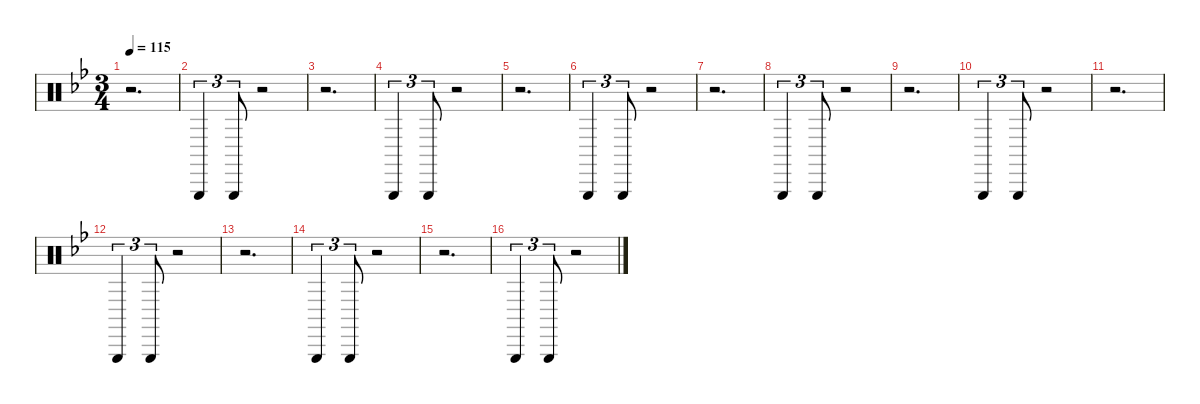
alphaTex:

\defaultSystemsLayout 4
\hideDynamics
\bracketExtendMode nobrackets
\singleTrackTrackNamePolicy hidden
\multiTrackTrackNamePolicy hidden
\firstSystemTrackNameMode fullname
\firstSystemTrackNameOrientation horizontal
\otherSystemsTrackNameOrientation horizontal
\track ("Percussion" "drm.") {defaultSystemsLayout 16 instrument percussion}
\staff {score}
\articulation defaults
\ts (3 4)
\tempo 115
\clef neutral
\ks gminor
r.2{d dy p beam Down} |
"Triangle (hit)"{acc forcenatural}.4{tu (3 2) dy mf beam Up} "Triangle (hit)"{acc forcenatural}.8{tu (3 2) dy p beam Up} r.2{beam Up} |
r.2{d beam Down} |
"Triangle (hit)"{acc forcenatural}.4{tu (3 2) dy mf beam Up} "Triangle (hit)"{acc forcenatural}.8{tu (3 2) dy p beam Up} r.2{beam Up} |
r.2{d beam Down} |
"Triangle (hit)"{acc forcenatural}.4{tu (3 2) dy mf beam Up} "Triangle (hit)"{acc forcenatural}.8{tu (3 2) dy p beam Up} r.2{beam Up} |
r.2{d beam Down} |
"Triangle (hit)"{acc forcenatural}.4{tu (3 2) dy mf beam Up} "Triangle (hit)"{acc forcenatural}.8{tu (3 2) dy p beam Up} r.2{beam Up} |
r.2{d beam Down} |
"Triangle (hit)"{acc forcenatural}.4{tu (3 2) dy mf beam Up} "Triangle (hit)"{acc forcenatural}.8{tu (3 2) dy p beam Up} r.2{beam Up} |
r.2{d beam Down} |
"Triangle (hit)"{acc forcenatural}.4{tu (3 2) dy mf beam Up} "Triangle (hit)"{acc forcenatural}.8{tu (3 2) dy p beam Up} r.2{beam Up} |
r.2{d beam Down} |
"Triangle (hit)"{acc forcenatural}.4{tu (3 2) dy mf beam Up} "Triangle (hit)"{acc forcenatural}.8{tu (3 2) dy p beam Up} r.2{beam Up} |
r.2{d beam Down} |
"Triangle (hit)"{acc forcenatural}.4{tu (3 2) dy mf beam Up} "Triangle (hit)"{acc forcenatural}.8{tu (3 2) dy p beam Up} r.2{beam Up}
